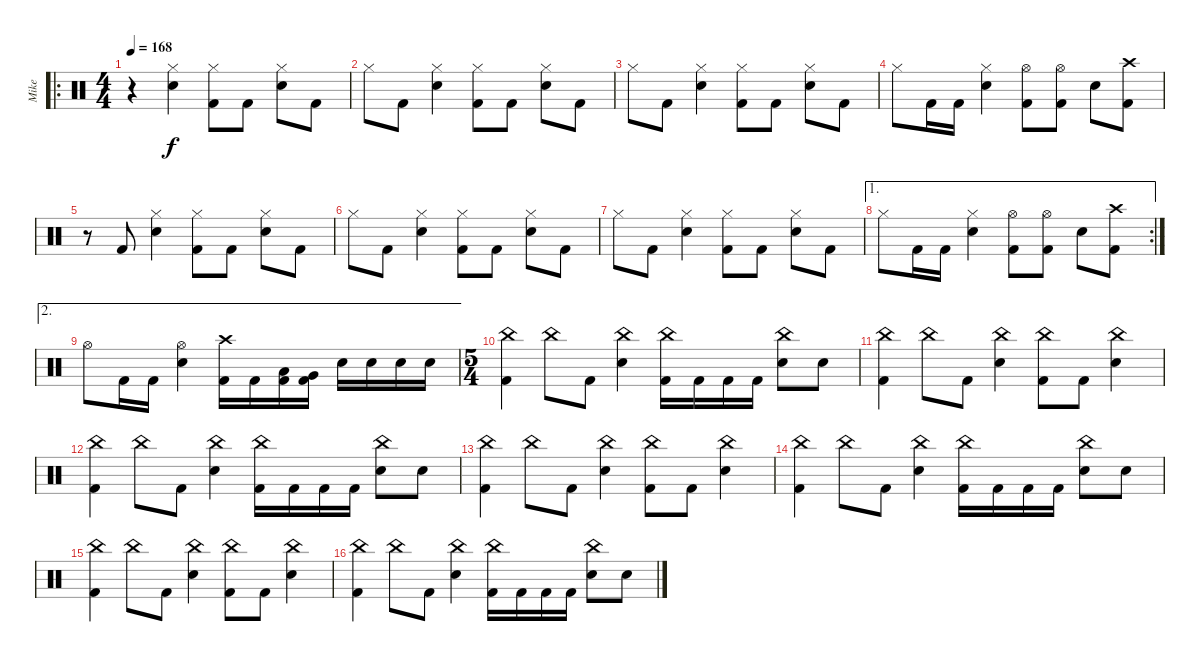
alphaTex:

\track ("Mike" "Mike") {instrument percussion}
\staff {score}
\articulation defaults
\ro
\ts (4 4)
\tempo 168
\clef neutral
\ks c
r.4{dy f} ("Electric Snare (hit)" "Hi-Hat (closed)").4 ("Kick (hit) 2" "Hi-Hat (closed)").8 "Kick (hit) 2".8 ("Electric Snare (hit)" "Hi-Hat (closed)").8 "Kick (hit) 2".8 |
"Hi-Hat (closed)".8 "Kick (hit) 2".8 ("Electric Snare (hit)" "Hi-Hat (closed)").4 ("Kick (hit) 2" "Hi-Hat (closed)").8 "Kick (hit) 2".8 ("Electric Snare (hit)" "Hi-Hat (closed)").8 "Kick (hit) 2".8 |
"Hi-Hat (closed)".8 "Kick (hit) 2".8 ("Electric Snare (hit)" "Hi-Hat (closed)").4 ("Kick (hit) 2" "Hi-Hat (closed)").8 "Kick (hit) 2".8 ("Electric Snare (hit)" "Hi-Hat (closed)").8 "Kick (hit) 2".8 |
"Hi-Hat (closed)".8 "Kick (hit) 2".16 "Kick (hit) 2".16 ("Electric Snare (hit)" "Hi-Hat (closed)").4 ("Kick (hit) 2" "Hi-Hat (open)").8 ("Kick (hit) 2" "Hi-Hat (open)").8 "Electric Snare (hit)".8 ("Kick (hit) 2" "Crash high (hit)").8 |
r.8 "Kick (hit) 2".8 ("Electric Snare (hit)" "Hi-Hat (closed)").4 ("Kick (hit) 2" "Hi-Hat (closed)").8 "Kick (hit) 2".8 ("Electric Snare (hit)" "Hi-Hat (closed)").8 "Kick (hit) 2".8 |
"Hi-Hat (closed)".8 "Kick (hit) 2".8 ("Electric Snare (hit)" "Hi-Hat (closed)").4 ("Kick (hit) 2" "Hi-Hat (closed)").8 "Kick (hit) 2".8 ("Electric Snare (hit)" "Hi-Hat (closed)").8 "Kick (hit) 2".8 |
"Hi-Hat (closed)".8 "Kick (hit) 2".8 ("Electric Snare (hit)" "Hi-Hat (closed)").4 ("Kick (hit) 2" "Hi-Hat (closed)").8 "Kick (hit) 2".8 ("Electric Snare (hit)" "Hi-Hat (closed)").8 "Kick (hit) 2".8 |
\ae 1
\rc 2 "Hi-Hat (closed)".8 "Kick (hit) 2".16 "Kick (hit) 2".16
("Electric Snare (hit)" "Hi-Hat (closed)").4 ("Kick (hit) 2" "Hi-Hat (open)").8 ("Kick (hit) 2" "Hi-Hat (open)").8 "Electric Snare (hit)".8 ("Kick (hit) 2" "Crash high (hit)").8 |
\ae 2 "Hi-Hat (open)".8 "Kick (hit) 2".16 "Kick (hit) 2".16
("Electric Snare (hit)" "Hi-Hat (open)").4 ("Kick (hit) 2" "Crash high (hit)").16 "Kick (hit) 2".16 ("Kick (hit) 2" "Low Tom (hit)").16 ("Kick (hit) 2" "Very Low Tom (hit)").16 "Electric Snare (hit)".16 "Electric Snare (hit)".16 "Electric Snare (hit)".16 "Electric Snare (hit)".16 |
\ts (5 4)
("Kick (hit) 2" "China (hit)").4 "China (hit)".8 "Kick (hit) 2".8 ("Electric Snare (hit)" "China (hit)").4 ("Kick (hit) 2" "China (hit)").16 "Kick (hit) 2".16 "Kick (hit) 2".16 "Kick (hit) 2".16 ("Electric Snare (hit)" "China (hit)").8 "Electric Snare (hit)".8 |
("Kick (hit) 2" "China (hit)").4 "China (hit)".8 "Kick (hit) 2".8 ("Electric Snare (hit)" "China (hit)").4 ("Kick (hit) 2" "China (hit)").8 "Kick (hit) 2".8 ("Electric Snare (hit)" "China (hit)").4 |
("Kick (hit) 2" "China (hit)").4 "China (hit)".8 "Kick (hit) 2".8 ("Electric Snare (hit)" "China (hit)").4 ("Kick (hit) 2" "China (hit)").16 "Kick (hit) 2".16 "Kick (hit) 2".16 "Kick (hit) 2".16 ("Electric Snare (hit)" "China (hit)").8 "Electric Snare (hit)".8 |
("Kick (hit) 2" "China (hit)").4 "China (hit)".8 "Kick (hit) 2".8 ("Electric Snare (hit)" "China (hit)").4 ("Kick (hit) 2" "China (hit)").8 "Kick (hit) 2".8 ("Electric Snare (hit)" "China (hit)").4 |
("Kick (hit) 2" "China (hit)").4 "China (hit)".8 "Kick (hit) 2".8 ("Electric Snare (hit)" "China (hit)").4 ("Kick (hit) 2" "China (hit)").16 "Kick (hit) 2".16 "Kick (hit) 2".16 "Kick (hit) 2".16 ("Electric Snare (hit)" "China (hit)").8 "Electric Snare (hit)".8 |
("Kick (hit) 2" "China (hit)").4 "China (hit)".8 "Kick (hit) 2".8 ("Electric Snare (hit)" "China (hit)").4 ("Kick (hit) 2" "China (hit)").8 "Kick (hit) 2".8 ("Electric Snare (hit)" "China (hit)").4 |
("Kick (hit) 2" "China (hit)").4 "China (hit)".8 "Kick (hit) 2".8 ("Electric Snare (hit)" "China (hit)").4 ("Kick (hit) 2" "China (hit)").16 "Kick (hit) 2".16 "Kick (hit) 2".16 "Kick (hit) 2".16 ("Electric Snare (hit)" "China (hit)").8 "Electric Snare (hit)".8
